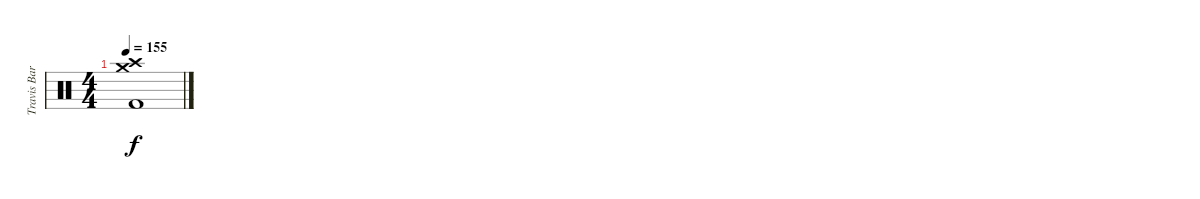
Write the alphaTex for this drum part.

\track ("Travis Barker Drums" "Travis Bar") {instrument percussion}
\staff {score}
\articulation defaults
\ts (4 4)
\tempo 155
\clef neutral
\ks c
("Crash high (hit)" "Crash medium (hit)" "Kick (hit) 2").1{dy f}
